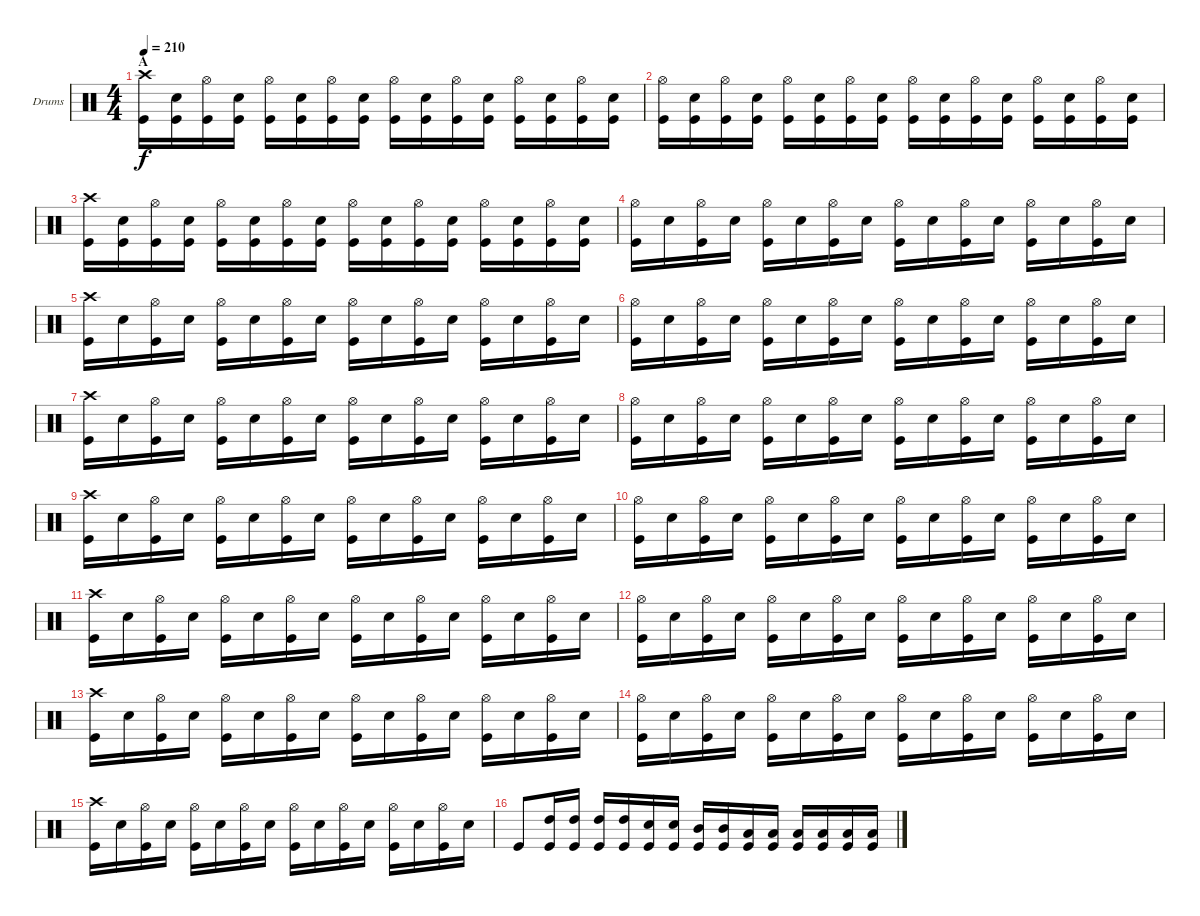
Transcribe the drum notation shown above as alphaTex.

\bracketExtendMode groupsimilarinstruments
\firstSystemTrackNameOrientation horizontal
\otherSystemsTrackNameOrientation horizontal
\track ("Drumkit" "Drums") {instrument percussion}
\staff {score}
\articulation defaults
\ts (4 4)
\section ("" "A")
\tempo 210
\clef neutral
\ks c
("Kick (hit)" "Crash high (hit)").16{dy f} ("Snare (hit) 2" "Kick (hit)").16 ("Kick (hit)" "Hi-Hat (open)").16 ("Snare (hit) 2" "Kick (hit)").16 ("Kick (hit)" "Hi-Hat (open)").16 ("Snare (hit) 2" "Kick (hit)").16 ("Kick (hit)" "Hi-Hat (open)").16 ("Snare (hit) 2" "Kick (hit)").16 ("Kick (hit)" "Hi-Hat (open)").16 ("Snare (hit) 2" "Kick (hit)").16 ("Kick (hit)" "Hi-Hat (open)").16 ("Snare (hit) 2" "Kick (hit)").16 ("Kick (hit)" "Hi-Hat (open)").16 ("Snare (hit) 2" "Kick (hit)").16 ("Kick (hit)" "Hi-Hat (open)").16 ("Snare (hit) 2" "Kick (hit)").16 |
("Kick (hit)" "Hi-Hat (open)").16 ("Snare (hit) 2" "Kick (hit)").16 ("Kick (hit)" "Hi-Hat (open)").16 ("Snare (hit) 2" "Kick (hit)").16 ("Kick (hit)" "Hi-Hat (open)").16 ("Snare (hit) 2" "Kick (hit)").16 ("Kick (hit)" "Hi-Hat (open)").16 ("Snare (hit) 2" "Kick (hit)").16 ("Kick (hit)" "Hi-Hat (open)").16 ("Snare (hit) 2" "Kick (hit)").16 ("Kick (hit)" "Hi-Hat (open)").16 ("Snare (hit) 2" "Kick (hit)").16 ("Kick (hit)" "Hi-Hat (open)").16 ("Snare (hit) 2" "Kick (hit)").16 ("Kick (hit)" "Hi-Hat (open)").16 ("Snare (hit) 2" "Kick (hit)").16 |
("Kick (hit)" "Crash high (hit)").16 ("Snare (hit) 2" "Kick (hit)").16 ("Kick (hit)" "Hi-Hat (open)").16 ("Snare (hit) 2" "Kick (hit)").16 ("Kick (hit)" "Hi-Hat (open)").16 ("Snare (hit) 2" "Kick (hit)").16 ("Kick (hit)" "Hi-Hat (open)").16 ("Snare (hit) 2" "Kick (hit)").16 ("Kick (hit)" "Hi-Hat (open)").16 ("Snare (hit) 2" "Kick (hit)").16 ("Kick (hit)" "Hi-Hat (open)").16 ("Snare (hit) 2" "Kick (hit)").16 ("Kick (hit)" "Hi-Hat (open)").16 ("Snare (hit) 2" "Kick (hit)").16 ("Kick (hit)" "Hi-Hat (open)").16 ("Snare (hit) 2" "Kick (hit)").16 |
("Kick (hit)" "Hi-Hat (open)").16 "Snare (hit) 2".16 ("Kick (hit)" "Hi-Hat (open)").16 "Snare (hit) 2".16 ("Kick (hit)" "Hi-Hat (open)").16 "Snare (hit) 2".16 ("Kick (hit)" "Hi-Hat (open)").16 "Snare (hit) 2".16 ("Kick (hit)" "Hi-Hat (open)").16 "Snare (hit) 2".16 ("Kick (hit)" "Hi-Hat (open)").16 "Snare (hit) 2".16 ("Kick (hit)" "Hi-Hat (open)").16 "Snare (hit) 2".16 ("Kick (hit)" "Hi-Hat (open)").16 "Snare (hit) 2".16 |
("Kick (hit)" "Crash high (hit)").16 "Snare (hit) 2".16 ("Kick (hit)" "Hi-Hat (open)").16 "Snare (hit) 2".16 ("Kick (hit)" "Hi-Hat (open)").16 "Snare (hit) 2".16 ("Kick (hit)" "Hi-Hat (open)").16 "Snare (hit) 2".16 ("Kick (hit)" "Hi-Hat (open)").16 "Snare (hit) 2".16 ("Kick (hit)" "Hi-Hat (open)").16 "Snare (hit) 2".16 ("Kick (hit)" "Hi-Hat (open)").16 "Snare (hit) 2".16 ("Kick (hit)" "Hi-Hat (open)").16 "Snare (hit) 2".16 |
("Kick (hit)" "Hi-Hat (open)").16 "Snare (hit) 2".16 ("Kick (hit)" "Hi-Hat (open)").16 "Snare (hit) 2".16 ("Kick (hit)" "Hi-Hat (open)").16 "Snare (hit) 2".16 ("Kick (hit)" "Hi-Hat (open)").16 "Snare (hit) 2".16 ("Kick (hit)" "Hi-Hat (open)").16 "Snare (hit) 2".16 ("Kick (hit)" "Hi-Hat (open)").16 "Snare (hit) 2".16 ("Kick (hit)" "Hi-Hat (open)").16 "Snare (hit) 2".16 ("Kick (hit)" "Hi-Hat (open)").16 "Snare (hit) 2".16 |
("Kick (hit)" "Crash high (hit)").16 "Snare (hit) 2".16 ("Kick (hit)" "Hi-Hat (open)").16 "Snare (hit) 2".16 ("Kick (hit)" "Hi-Hat (open)").16 "Snare (hit) 2".16 ("Kick (hit)" "Hi-Hat (open)").16 "Snare (hit) 2".16 ("Kick (hit)" "Hi-Hat (open)").16 "Snare (hit) 2".16 ("Kick (hit)" "Hi-Hat (open)").16 "Snare (hit) 2".16 ("Kick (hit)" "Hi-Hat (open)").16 "Snare (hit) 2".16 ("Kick (hit)" "Hi-Hat (open)").16 "Snare (hit) 2".16 |
("Kick (hit)" "Hi-Hat (open)").16 "Snare (hit) 2".16 ("Kick (hit)" "Hi-Hat (open)").16 "Snare (hit) 2".16 ("Kick (hit)" "Hi-Hat (open)").16 "Snare (hit) 2".16 ("Kick (hit)" "Hi-Hat (open)").16 "Snare (hit) 2".16 ("Kick (hit)" "Hi-Hat (open)").16 "Snare (hit) 2".16 ("Kick (hit)" "Hi-Hat (open)").16 "Snare (hit) 2".16 ("Kick (hit)" "Hi-Hat (open)").16 "Snare (hit) 2".16 ("Kick (hit)" "Hi-Hat (open)").16 "Snare (hit) 2".16 |
("Kick (hit)" "Crash high (hit)").16 "Snare (hit) 2".16 ("Kick (hit)" "Hi-Hat (open)").16 "Snare (hit) 2".16 ("Kick (hit)" "Hi-Hat (open)").16 "Snare (hit) 2".16 ("Kick (hit)" "Hi-Hat (open)").16 "Snare (hit) 2".16 ("Kick (hit)" "Hi-Hat (open)").16 "Snare (hit) 2".16 ("Kick (hit)" "Hi-Hat (open)").16 "Snare (hit) 2".16 ("Kick (hit)" "Hi-Hat (open)").16 "Snare (hit) 2".16 ("Kick (hit)" "Hi-Hat (open)").16 "Snare (hit) 2".16 |
("Kick (hit)" "Hi-Hat (open)").16 "Snare (hit) 2".16 ("Kick (hit)" "Hi-Hat (open)").16 "Snare (hit) 2".16 ("Kick (hit)" "Hi-Hat (open)").16 "Snare (hit) 2".16 ("Kick (hit)" "Hi-Hat (open)").16 "Snare (hit) 2".16 ("Kick (hit)" "Hi-Hat (open)").16 "Snare (hit) 2".16 ("Kick (hit)" "Hi-Hat (open)").16 "Snare (hit) 2".16 ("Kick (hit)" "Hi-Hat (open)").16 "Snare (hit) 2".16 ("Kick (hit)" "Hi-Hat (open)").16 "Snare (hit) 2".16 |
("Kick (hit)" "Crash high (hit)").16 "Snare (hit) 2".16 ("Kick (hit)" "Hi-Hat (open)").16 "Snare (hit) 2".16 ("Kick (hit)" "Hi-Hat (open)").16 "Snare (hit) 2".16 ("Kick (hit)" "Hi-Hat (open)").16 "Snare (hit) 2".16 ("Kick (hit)" "Hi-Hat (open)").16 "Snare (hit) 2".16 ("Kick (hit)" "Hi-Hat (open)").16 "Snare (hit) 2".16 ("Kick (hit)" "Hi-Hat (open)").16 "Snare (hit) 2".16 ("Kick (hit)" "Hi-Hat (open)").16 "Snare (hit) 2".16 |
("Kick (hit)" "Hi-Hat (open)").16 "Snare (hit) 2".16 ("Kick (hit)" "Hi-Hat (open)").16 "Snare (hit) 2".16 ("Kick (hit)" "Hi-Hat (open)").16 "Snare (hit) 2".16 ("Kick (hit)" "Hi-Hat (open)").16 "Snare (hit) 2".16 ("Kick (hit)" "Hi-Hat (open)").16 "Snare (hit) 2".16 ("Kick (hit)" "Hi-Hat (open)").16 "Snare (hit) 2".16 ("Kick (hit)" "Hi-Hat (open)").16 "Snare (hit) 2".16 ("Kick (hit)" "Hi-Hat (open)").16 "Snare (hit) 2".16 |
("Kick (hit)" "Crash high (hit)").16 "Snare (hit) 2".16 ("Kick (hit)" "Hi-Hat (open)").16 "Snare (hit) 2".16 ("Kick (hit)" "Hi-Hat (open)").16 "Snare (hit) 2".16 ("Kick (hit)" "Hi-Hat (open)").16 "Snare (hit) 2".16 ("Kick (hit)" "Hi-Hat (open)").16 "Snare (hit) 2".16 ("Kick (hit)" "Hi-Hat (open)").16 "Snare (hit) 2".16 ("Kick (hit)" "Hi-Hat (open)").16 "Snare (hit) 2".16 ("Kick (hit)" "Hi-Hat (open)").16 "Snare (hit) 2".16 |
("Kick (hit)" "Hi-Hat (open)").16 "Snare (hit) 2".16 ("Kick (hit)" "Hi-Hat (open)").16 "Snare (hit) 2".16 ("Kick (hit)" "Hi-Hat (open)").16 "Snare (hit) 2".16 ("Kick (hit)" "Hi-Hat (open)").16 "Snare (hit) 2".16 ("Kick (hit)" "Hi-Hat (open)").16 "Snare (hit) 2".16 ("Kick (hit)" "Hi-Hat (open)").16 "Snare (hit) 2".16 ("Kick (hit)" "Hi-Hat (open)").16 "Snare (hit) 2".16 ("Kick (hit)" "Hi-Hat (open)").16 "Snare (hit) 2".16 |
("Kick (hit)" "Crash high (hit)").16 "Snare (hit) 2".16 ("Kick (hit)" "Hi-Hat (open)").16 "Snare (hit) 2".16 ("Kick (hit)" "Hi-Hat (open)").16 "Snare (hit) 2".16 ("Kick (hit)" "Hi-Hat (open)").16 "Snare (hit) 2".16 ("Kick (hit)" "Hi-Hat (open)").16 "Snare (hit) 2".16 ("Kick (hit)" "Hi-Hat (open)").16 "Snare (hit) 2".16 ("Kick (hit)" "Hi-Hat (open)").16 "Snare (hit) 2".16 ("Kick (hit)" "Hi-Hat (open)").16 "Snare (hit) 2".16 |
"Kick (hit)".8 ("High Tom (hit)" "Kick (hit)").16 ("High Tom (hit)" "Kick (hit)").16 ("High Tom (hit)" "Kick (hit)").16 ("High Tom (hit)" "Kick (hit)").16 ("Kick (hit)" "Snare (hit) 2").16 ("Kick (hit)" "Snare (hit) 2").16 ("Mid Tom (hit)" "Kick (hit)").16 ("Mid Tom (hit)" "Kick (hit)").16 ("Kick (hit)" "Low Tom (hit)").16 ("Kick (hit)" "Low Tom (hit)").16 ("Kick (hit)" "Low Tom (hit)").16 ("Kick (hit)" "Low Tom (hit)").16 ("Kick (hit)" "Low Tom (hit)").16 ("Kick (hit)" "Low Tom (hit)").16
